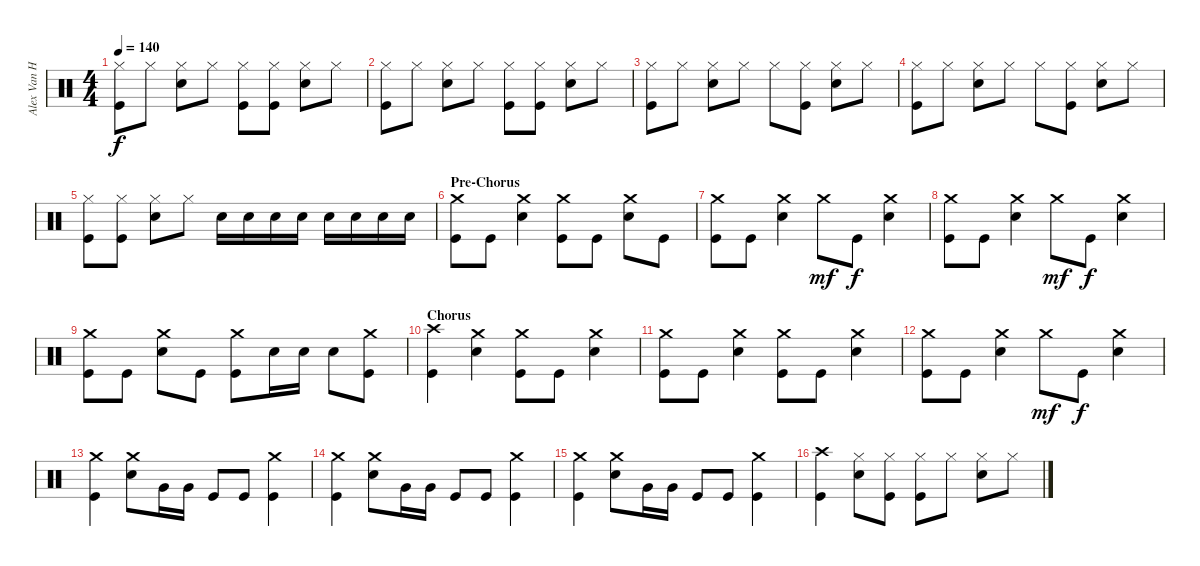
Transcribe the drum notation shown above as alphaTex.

\track ("Alex Van Halen (Drums)" "Alex Van H") {instrument percussion}
\staff {score}
\articulation defaults
\ts (4 4)
\tempo 140
\clef neutral
\ks c
("Hi-Hat (closed)" "Kick (hit)").8{dy f} "Hi-Hat (closed)".8 ("Hi-Hat (closed)" "Snare (hit) 2").8 "Hi-Hat (closed)".8 ("Hi-Hat (closed)" "Kick (hit)").8 ("Hi-Hat (closed)" "Kick (hit)").8 ("Hi-Hat (closed)" "Snare (hit) 2").8 "Hi-Hat (closed)".8 |
("Hi-Hat (closed)" "Kick (hit)").8 "Hi-Hat (closed)".8 ("Hi-Hat (closed)" "Snare (hit) 2").8 "Hi-Hat (closed)".8 ("Hi-Hat (closed)" "Kick (hit)").8 ("Hi-Hat (closed)" "Kick (hit)").8 ("Hi-Hat (closed)" "Snare (hit) 2").8 "Hi-Hat (closed)".8 |
("Hi-Hat (closed)" "Kick (hit)").8 "Hi-Hat (closed)".8 ("Hi-Hat (closed)" "Snare (hit) 2").8 "Hi-Hat (closed)".8 "Hi-Hat (closed)".8 ("Hi-Hat (closed)" "Kick (hit)").8 ("Hi-Hat (closed)" "Snare (hit) 2").8 "Hi-Hat (closed)".8 |
("Hi-Hat (closed)" "Kick (hit)").8 "Hi-Hat (closed)".8 ("Hi-Hat (closed)" "Snare (hit) 2").8 "Hi-Hat (closed)".8 "Hi-Hat (closed)".8 ("Hi-Hat (closed)" "Kick (hit)").8 ("Hi-Hat (closed)" "Snare (hit) 2").8 "Hi-Hat (closed)".8 |
("Hi-Hat (closed)" "Kick (hit)").8 ("Hi-Hat (closed)" "Kick (hit)").8 ("Hi-Hat (closed)" "Snare (hit) 2").8 "Hi-Hat (closed)".8 "Snare (hit) 2".16 "Snare (hit) 2".16 "Snare (hit) 2".16 "Snare (hit) 2".16 "Snare (hit) 2".16 "Snare (hit) 2".16 "Snare (hit) 2".16 "Snare (hit) 2".16 |
\section ("" "Pre-Chorus")
("Crash medium (hit)" "Kick (hit)").8 "Kick (hit)".8 ("Crash medium (hit)" "Snare (hit) 2").4 ("Crash medium (hit)" "Kick (hit)").8 "Kick (hit)".8 ("Crash medium (hit)" "Snare (hit) 2").8 "Kick (hit)".8 |
("Crash medium (hit)" "Kick (hit)").8 "Kick (hit)".8 ("Crash medium (hit)" "Snare (hit) 2").4 "Crash medium (hit)".8{dy mf} "Kick (hit)".8{dy f} ("Crash medium (hit)" "Snare (hit) 2").4 |
("Crash medium (hit)" "Kick (hit)").8 "Kick (hit)".8 ("Crash medium (hit)" "Snare (hit) 2").4 "Crash medium (hit)".8{dy mf} "Kick (hit)".8{dy f} ("Crash medium (hit)" "Snare (hit) 2").4 |
("Crash medium (hit)" "Kick (hit)").8 "Kick (hit)".8 ("Crash medium (hit)" "Snare (hit) 2").8 "Kick (hit)".8 ("Crash medium (hit)" "Kick (hit)").8 "Snare (hit) 2".16 "Snare (hit) 2".16 "Snare (hit) 2".8 ("Crash medium (hit)" "Kick (hit)").8 |
\section ("" "Chorus")
("Crash high (hit)" "Kick (hit)").4 ("Crash medium (hit)" "Snare (hit) 2").4 ("Crash medium (hit)" "Kick (hit)").8 "Kick (hit)".8 ("Crash medium (hit)" "Snare (hit) 2").4 |
("Crash medium (hit)" "Kick (hit)").8 "Kick (hit)".8 ("Crash medium (hit)" "Snare (hit) 2").4 ("Crash medium (hit)" "Kick (hit)").8 "Kick (hit)".8 ("Crash medium (hit)" "Snare (hit) 2").4 |
("Crash medium (hit)" "Kick (hit)").8 "Kick (hit)".8 ("Crash medium (hit)" "Snare (hit) 2").4 "Crash medium (hit)".8{dy mf} "Kick (hit)".8{dy f} ("Crash medium (hit)" "Snare (hit) 2").4 |
("Crash medium (hit)" "Kick (hit)").4 ("Crash medium (hit)" "Snare (hit) 2").8 "Very Low Tom (hit)".16 "Very Low Tom (hit)".16 "Kick (hit)".8 "Kick (hit)".8 ("Crash medium (hit)" "Kick (hit)").4 |
("Crash medium (hit)" "Kick (hit)").4 ("Crash medium (hit)" "Snare (hit) 2").8 "Very Low Tom (hit)".16 "Very Low Tom (hit)".16 "Kick (hit)".8 "Kick (hit)".8 ("Crash medium (hit)" "Kick (hit)").4 |
("Crash medium (hit)" "Kick (hit)").4 ("Crash medium (hit)" "Snare (hit) 2").8 "Very Low Tom (hit)".16 "Very Low Tom (hit)".16 "Kick (hit)".8 "Kick (hit)".8 ("Crash medium (hit)" "Kick (hit)").4 |
("Crash high (hit)" "Kick (hit)").4 ("Hi-Hat (closed)" "Snare (hit) 2").8 ("Hi-Hat (closed)" "Kick (hit)").8 ("Hi-Hat (closed)" "Kick (hit)").8 "Hi-Hat (closed)".8 ("Hi-Hat (closed)" "Snare (hit) 2").8 "Hi-Hat (closed)".8
